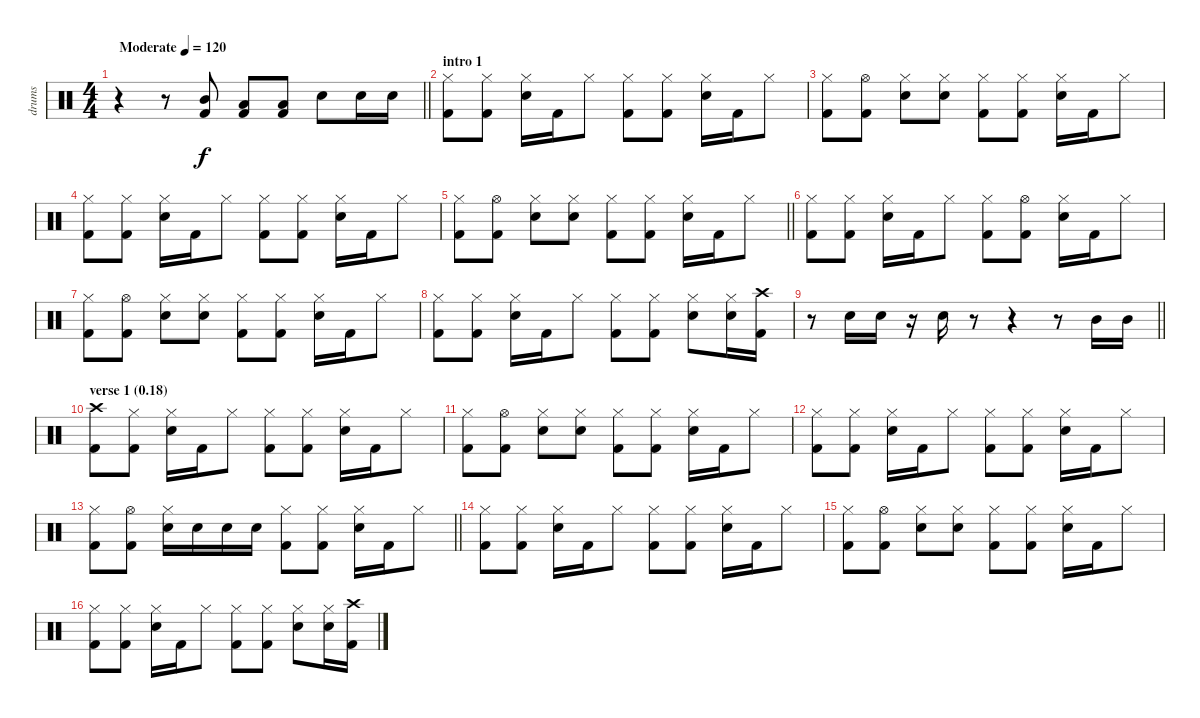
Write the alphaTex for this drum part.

\track ("drums" "drums") {instrument percussion}
\staff {score}
\articulation defaults
\ts (4 4)
\tempo (120 "Moderate")
\clef neutral
\barLineRight lightlight
\ks c
r.4{dy f} r.8 ("Mid Tom (hit)" "Kick (hit) 2").8 ("Low Tom (hit)" "Kick (hit) 2").8 ("Low Tom (hit)" "Kick (hit) 2").8 "Electric Snare (hit)".8 "Electric Snare (hit)".16 "Electric Snare (hit)".16 |
\section ("" "intro 1")
("Hi-Hat (closed)" "Kick (hit) 2").8 ("Hi-Hat (closed)" "Kick (hit) 2").8 ("Hi-Hat (closed)" "Electric Snare (hit)").16 "Kick (hit) 2".16 "Hi-Hat (closed)".8 ("Hi-Hat (closed)" "Kick (hit) 2").8 ("Hi-Hat (closed)" "Kick (hit) 2").8 ("Hi-Hat (closed)" "Electric Snare (hit)").16 "Kick (hit) 2".16 "Hi-Hat (closed)".8 |
("Hi-Hat (closed)" "Kick (hit) 2").8 ("Hi-Hat (open)" "Kick (hit) 2").8 ("Hi-Hat (closed)" "Electric Snare (hit)").8 ("Hi-Hat (closed)" "Electric Snare (hit)").8 ("Hi-Hat (closed)" "Kick (hit) 2").8 ("Hi-Hat (closed)" "Kick (hit) 2").8 ("Hi-Hat (closed)" "Electric Snare (hit)").16 "Kick (hit) 2".16 "Hi-Hat (closed)".8 |
("Hi-Hat (closed)" "Kick (hit) 2").8 ("Hi-Hat (closed)" "Kick (hit) 2").8 ("Hi-Hat (closed)" "Electric Snare (hit)").16 "Kick (hit) 2".16 "Hi-Hat (closed)".8 ("Hi-Hat (closed)" "Kick (hit) 2").8 ("Hi-Hat (closed)" "Kick (hit) 2").8 ("Hi-Hat (closed)" "Electric Snare (hit)").16 "Kick (hit) 2".16 "Hi-Hat (closed)".8 |
\barLineRight lightlight
("Hi-Hat (closed)" "Kick (hit) 2").8 ("Hi-Hat (open)" "Kick (hit) 2").8 ("Hi-Hat (closed)" "Electric Snare (hit)").8 ("Hi-Hat (closed)" "Electric Snare (hit)").8 ("Hi-Hat (closed)" "Kick (hit) 2").8 ("Hi-Hat (closed)" "Kick (hit) 2").8 ("Hi-Hat (closed)" "Electric Snare (hit)").16 "Kick (hit) 2".16 "Hi-Hat (closed)".8 |
("Hi-Hat (closed)" "Kick (hit) 2").8 ("Hi-Hat (closed)" "Kick (hit) 2").8 ("Hi-Hat (closed)" "Electric Snare (hit)").16 "Kick (hit) 2".16 "Hi-Hat (closed)".8 ("Hi-Hat (closed)" "Kick (hit) 2").8 ("Hi-Hat (open)" "Kick (hit) 2").8 ("Hi-Hat (closed)" "Electric Snare (hit)").16 "Kick (hit) 2".16 "Hi-Hat (closed)".8 |
("Hi-Hat (closed)" "Kick (hit) 2").8 ("Hi-Hat (open)" "Kick (hit) 2").8 ("Hi-Hat (closed)" "Electric Snare (hit)").8 ("Hi-Hat (closed)" "Electric Snare (hit)").8 ("Hi-Hat (closed)" "Kick (hit) 2").8 ("Hi-Hat (closed)" "Kick (hit) 2").8 ("Hi-Hat (closed)" "Electric Snare (hit)").16 "Kick (hit) 2".16 "Hi-Hat (closed)".8 |
("Hi-Hat (closed)" "Kick (hit) 2").8 ("Hi-Hat (closed)" "Kick (hit) 2").8 ("Hi-Hat (closed)" "Electric Snare (hit)").16 "Kick (hit) 2".16 "Hi-Hat (closed)".8 ("Hi-Hat (closed)" "Kick (hit) 2").8 ("Hi-Hat (closed)" "Kick (hit) 2").8 ("Hi-Hat (closed)" "Electric Snare (hit)").8 ("Hi-Hat (closed)" "Electric Snare (hit)").16 ("Crash high (hit)" "Kick (hit) 2").16 |
\barLineRight lightlight
r.8 "Electric Snare (hit)".16 "Electric Snare (hit)".16 r.16 "Electric Snare (hit)".16 r.8 r.4 r.8 "Mid Tom (hit)".16 "Mid Tom (hit)".16 |
\section ("" "verse 1 (0.18)")
("Crash high (hit)" "Kick (hit) 2").8 ("Hi-Hat (closed)" "Kick (hit) 2").8 ("Hi-Hat (closed)" "Electric Snare (hit)").16 "Kick (hit) 2".16 "Hi-Hat (closed)".8 ("Hi-Hat (closed)" "Kick (hit) 2").8 ("Hi-Hat (closed)" "Kick (hit) 2").8 ("Hi-Hat (closed)" "Electric Snare (hit)").16 "Kick (hit) 2".16 "Hi-Hat (closed)".8 |
("Hi-Hat (closed)" "Kick (hit) 2").8 ("Hi-Hat (open)" "Kick (hit) 2").8 ("Hi-Hat (closed)" "Electric Snare (hit)").8 ("Hi-Hat (closed)" "Electric Snare (hit)").8 ("Hi-Hat (closed)" "Kick (hit) 2").8 ("Hi-Hat (closed)" "Kick (hit) 2").8 ("Hi-Hat (closed)" "Electric Snare (hit)").16 "Kick (hit) 2".16 "Hi-Hat (closed)".8 |
("Hi-Hat (closed)" "Kick (hit) 2").8 ("Hi-Hat (closed)" "Kick (hit) 2").8 ("Hi-Hat (closed)" "Electric Snare (hit)").16 "Kick (hit) 2".16 "Hi-Hat (closed)".8 ("Hi-Hat (closed)" "Kick (hit) 2").8 ("Hi-Hat (closed)" "Kick (hit) 2").8 ("Hi-Hat (closed)" "Electric Snare (hit)").16 "Kick (hit) 2".16 "Hi-Hat (closed)".8 |
\barLineRight lightlight
("Hi-Hat (closed)" "Kick (hit) 2").8 ("Hi-Hat (open)" "Kick (hit) 2").8 ("Hi-Hat (closed)" "Electric Snare (hit)").16 "Electric Snare (hit)".16 "Electric Snare (hit)".16 "Electric Snare (hit)".16 ("Hi-Hat (closed)" "Kick (hit) 2").8 ("Hi-Hat (closed)" "Kick (hit) 2").8 ("Hi-Hat (closed)" "Electric Snare (hit)").16 "Kick (hit) 2".16 "Hi-Hat (closed)".8 |
("Hi-Hat (closed)" "Kick (hit) 2").8 ("Hi-Hat (closed)" "Kick (hit) 2").8 ("Hi-Hat (closed)" "Electric Snare (hit)").16 "Kick (hit) 2".16 "Hi-Hat (closed)".8 ("Hi-Hat (closed)" "Kick (hit) 2").8 ("Hi-Hat (closed)" "Kick (hit) 2").8 ("Hi-Hat (closed)" "Electric Snare (hit)").16 "Kick (hit) 2".16 "Hi-Hat (closed)".8 |
("Hi-Hat (closed)" "Kick (hit) 2").8 ("Hi-Hat (open)" "Kick (hit) 2").8 ("Hi-Hat (closed)" "Electric Snare (hit)").8 ("Hi-Hat (closed)" "Electric Snare (hit)").8 ("Hi-Hat (closed)" "Kick (hit) 2").8 ("Hi-Hat (closed)" "Kick (hit) 2").8 ("Hi-Hat (closed)" "Electric Snare (hit)").16 "Kick (hit) 2".16 "Hi-Hat (closed)".8 |
("Hi-Hat (closed)" "Kick (hit) 2").8 ("Hi-Hat (closed)" "Kick (hit) 2").8 ("Hi-Hat (closed)" "Electric Snare (hit)").16 "Kick (hit) 2".16 "Hi-Hat (closed)".8 ("Hi-Hat (closed)" "Kick (hit) 2").8 ("Hi-Hat (closed)" "Kick (hit) 2").8 ("Hi-Hat (closed)" "Electric Snare (hit)").8 ("Hi-Hat (closed)" "Electric Snare (hit)").16 ("Crash high (hit)" "Kick (hit) 2").16
